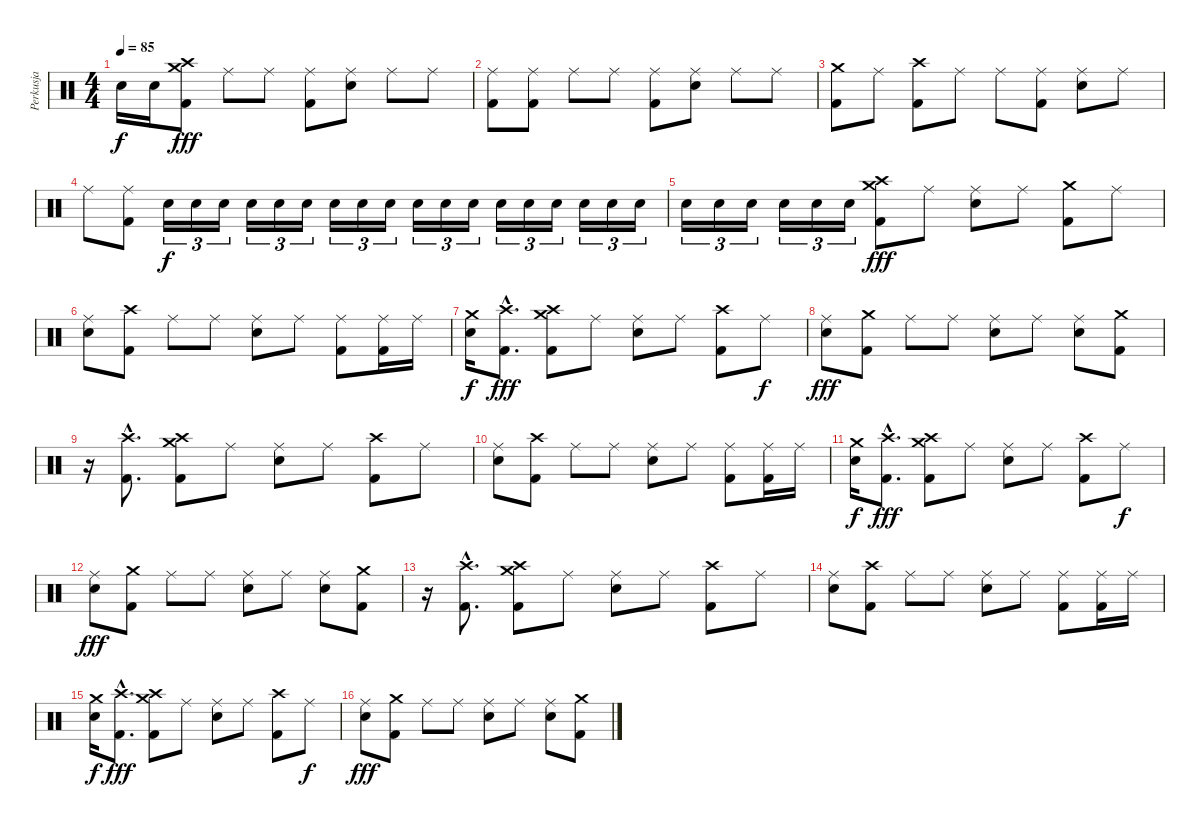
\track ("Perkusja" "Perkusja") {instrument percussion}
\staff {score}
\articulation defaults
\ts (4 4)
\tempo 85
\clef neutral
\ks c "Electric Snare (hit)".16{dy f} "Electric Snare (hit)".16
("Crash medium (hit)" "Crash high (hit)" "Kick (hit) 2").8{dy fff} "Ride (middle)".8 "Ride (middle)".8 ("Ride (middle)" "Kick (hit) 2").8 ("Ride (middle)" "Electric Snare (hit)").8 "Ride (middle)".8 "Ride (middle)".8 |
("Ride (middle)" "Kick (hit) 2").8 ("Ride (middle)" "Kick (hit) 2").8 "Ride (middle)".8 "Ride (middle)".8 ("Ride (middle)" "Kick (hit) 2").8 ("Ride (middle)" "Electric Snare (hit)").8 "Ride (middle)".8 "Ride (middle)".8 |
("Crash medium (hit)" "Kick (hit) 2").8 "Ride (middle)".8 ("Crash high (hit)" "Kick (hit) 2").8 "Ride (middle)".8 "Ride (middle)".8 ("Ride (middle)" "Kick (hit) 2").8 ("Ride (middle)" "Electric Snare (hit)").8 "Ride (middle)".8 |
"Ride (middle)".8 ("Ride (middle)" "Kick (hit) 2").8 "Electric Snare (hit)".16{tu (3 2) dy f} "Electric Snare (hit)".16{tu (3 2)} "Electric Snare (hit)".16{tu (3 2)} "Electric Snare (hit)".16{tu (3 2)} "Electric Snare (hit)".16{tu (3 2)} "Electric Snare (hit)".16{tu (3 2)} "Electric Snare (hit)".16{tu (3 2)} "Electric Snare (hit)".16{tu (3 2)} "Electric Snare (hit)".16{tu (3 2)} "Electric Snare (hit)".16{tu (3 2)} "Electric Snare (hit)".16{tu (3 2)} "Electric Snare (hit)".16{tu (3 2)} "Electric Snare (hit)".16{tu (3 2)} "Electric Snare (hit)".16{tu (3 2)} "Electric Snare (hit)".16{tu (3 2)} "Electric Snare (hit)".16{tu (3 2)} "Electric Snare (hit)".16{tu (3 2)} "Electric Snare (hit)".16{tu (3 2)} |
"Electric Snare (hit)".16{tu (3 2)} "Electric Snare (hit)".16{tu (3 2)} "Electric Snare (hit)".16{tu (3 2)} "Electric Snare (hit)".16{tu (3 2)} "Electric Snare (hit)".16{tu (3 2)} "Electric Snare (hit)".16{tu (3 2)} ("Crash medium (hit)" "Crash high (hit)" "Kick (hit) 2").8{dy fff} "Ride (middle)".8 ("Ride (middle)" "Electric Snare (hit)").8 "Ride (middle)".8 ("Crash medium (hit)" "Kick (hit) 2").8 "Ride (middle)".8 |
("Ride (middle)" "Electric Snare (hit)").8 ("Crash high (hit)" "Kick (hit) 2").8 "Ride (middle)".8 "Ride (middle)".8 ("Ride (middle)" "Electric Snare (hit)").8 "Ride (middle)".8 ("Ride (middle)" "Kick (hit) 2").8 ("Ride (middle)" "Kick (hit) 2").16 "Ride (middle)".16 |
("Crash medium (hit)" "Electric Snare (hit)").16{dy f} ("Crash high (hit)"{hac} "Kick (hit) 2"{hac}).8{d dy fff} ("Crash medium (hit)" "Crash high (hit)" "Kick (hit) 2").8 "Ride (middle)".8 ("Ride (middle)" "Electric Snare (hit)").8 "Ride (middle)".8 ("Crash high (hit)" "Kick (hit) 2").8 "Ride (middle)".8{dy f} |
("Ride (middle)" "Electric Snare (hit)").8{dy fff} ("Crash medium (hit)" "Kick (hit) 2").8 "Ride (middle)".8 "Ride (middle)".8 ("Ride (middle)" "Electric Snare (hit)").8 "Ride (middle)".8 ("Ride (middle)" "Electric Snare (hit)").8 ("Crash medium (hit)" "Kick (hit) 2").8 |
r.16 ("Crash high (hit)"{hac} "Kick (hit) 2"{hac}).8{d} ("Crash medium (hit)" "Crash high (hit)" "Kick (hit) 2").8 "Ride (middle)".8 ("Ride (middle)" "Electric Snare (hit)").8 "Ride (middle)".8 ("Crash high (hit)" "Kick (hit) 2").8 "Ride (middle)".8 |
("Ride (middle)" "Electric Snare (hit)").8 ("Crash high (hit)" "Kick (hit) 2").8 "Ride (middle)".8 "Ride (middle)".8 ("Ride (middle)" "Electric Snare (hit)").8 "Ride (middle)".8 ("Ride (middle)" "Kick (hit) 2").8 ("Ride (middle)" "Kick (hit) 2").16 "Ride (middle)".16 |
("Crash medium (hit)" "Electric Snare (hit)").16{dy f} ("Crash high (hit)"{hac} "Kick (hit) 2"{hac}).8{d dy fff} ("Crash medium (hit)" "Crash high (hit)" "Kick (hit) 2").8 "Ride (middle)".8 ("Ride (middle)" "Electric Snare (hit)").8 "Ride (middle)".8 ("Crash high (hit)" "Kick (hit) 2").8 "Ride (middle)".8{dy f} |
("Ride (middle)" "Electric Snare (hit)").8{dy fff} ("Crash medium (hit)" "Kick (hit) 2").8 "Ride (middle)".8 "Ride (middle)".8 ("Ride (middle)" "Electric Snare (hit)").8 "Ride (middle)".8 ("Ride (middle)" "Electric Snare (hit)").8 ("Crash medium (hit)" "Kick (hit) 2").8 |
r.16 ("Crash high (hit)"{hac} "Kick (hit) 2"{hac}).8{d} ("Crash medium (hit)" "Crash high (hit)" "Kick (hit) 2").8 "Ride (middle)".8 ("Ride (middle)" "Electric Snare (hit)").8 "Ride (middle)".8 ("Crash high (hit)" "Kick (hit) 2").8 "Ride (middle)".8 |
("Ride (middle)" "Electric Snare (hit)").8 ("Crash high (hit)" "Kick (hit) 2").8 "Ride (middle)".8 "Ride (middle)".8 ("Ride (middle)" "Electric Snare (hit)").8 "Ride (middle)".8 ("Ride (middle)" "Kick (hit) 2").8 ("Ride (middle)" "Kick (hit) 2").16 "Ride (middle)".16 |
("Crash medium (hit)" "Electric Snare (hit)").16{dy f} ("Crash high (hit)"{hac} "Kick (hit) 2"{hac}).8{d dy fff} ("Crash medium (hit)" "Crash high (hit)" "Kick (hit) 2").8 "Ride (middle)".8 ("Ride (middle)" "Electric Snare (hit)").8 "Ride (middle)".8 ("Crash high (hit)" "Kick (hit) 2").8 "Ride (middle)".8{dy f} |
("Ride (middle)" "Electric Snare (hit)").8{dy fff} ("Crash medium (hit)" "Kick (hit) 2").8 "Ride (middle)".8 "Ride (middle)".8 ("Ride (middle)" "Electric Snare (hit)").8 "Ride (middle)".8 ("Ride (middle)" "Electric Snare (hit)").8 ("Crash medium (hit)" "Kick (hit) 2").8
